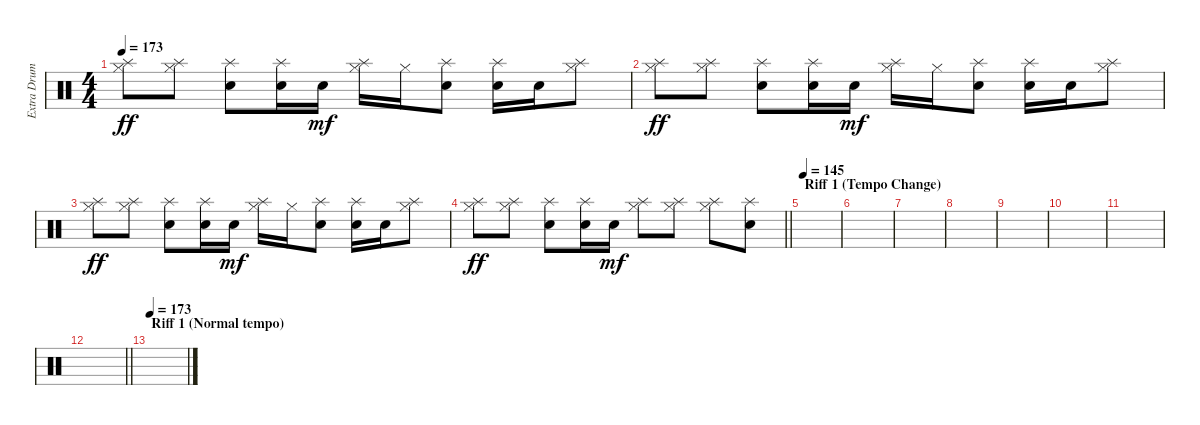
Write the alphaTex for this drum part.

\track ("Extra Drums" "Extra Drum") {instrument percussion}
\staff {score}
\articulation defaults
\ts (4 4)
\tempo 173
\clef neutral
\ks c
("Hi-Hat (closed)" "Splash (hit)").8{dy ff} ("Hi-Hat (closed)" "Splash (hit)").8 ("Electric Snare (hit)" "Splash (hit)").8 ("Snare (hit) 2" "Splash (hit)").16 "Snare (hit) 2".16{dy mf} ("Hi-Hat (closed)" "Splash (hit)").16 "Hi-Hat (closed)".16 ("Electric Snare (hit)" "Splash (hit)").8 ("Electric Snare (hit)" "Splash (hit)").16 "Snare (hit) 2".16 ("Hi-Hat (closed)" "Splash (hit)").8 |
("Hi-Hat (closed)" "Splash (hit)").8{dy ff} ("Hi-Hat (closed)" "Splash (hit)").8 ("Electric Snare (hit)" "Splash (hit)").8 ("Snare (hit) 2" "Splash (hit)").16 "Snare (hit) 2".16{dy mf} ("Hi-Hat (closed)" "Splash (hit)").16 "Hi-Hat (closed)".16 ("Electric Snare (hit)" "Splash (hit)").8 ("Electric Snare (hit)" "Splash (hit)").16 "Snare (hit) 2".16 ("Hi-Hat (closed)" "Splash (hit)").8 |
("Hi-Hat (closed)" "Splash (hit)").8{dy ff} ("Hi-Hat (closed)" "Splash (hit)").8 ("Electric Snare (hit)" "Splash (hit)").8 ("Snare (hit) 2" "Splash (hit)").16 "Snare (hit) 2".16{dy mf} ("Hi-Hat (closed)" "Splash (hit)").16 "Hi-Hat (closed)".16 ("Electric Snare (hit)" "Splash (hit)").8 ("Electric Snare (hit)" "Splash (hit)").16 "Snare (hit) 2".16 ("Hi-Hat (closed)" "Splash (hit)").8 |
\barLineRight lightlight
("Hi-Hat (closed)" "Splash (hit)").8{dy ff} ("Hi-Hat (closed)" "Splash (hit)").8 ("Electric Snare (hit)" "Splash (hit)").8 ("Snare (hit) 2" "Splash (hit)").16 "Snare (hit) 2".16{dy mf} ("Hi-Hat (closed)" "Splash (hit)").8 ("Hi-Hat (closed)" "Splash (hit)").8 ("Hi-Hat (closed)" "Splash (hit)").8 ("Snare (hit) 2" "Splash (hit)").8 |
\section ("" "Riff 1 (Tempo Change)")
\tempo 145
|
|
|
|
|
|
|
\barLineRight lightlight
|
\section ("" "Riff 1 (Normal tempo)")
\tempo 173
